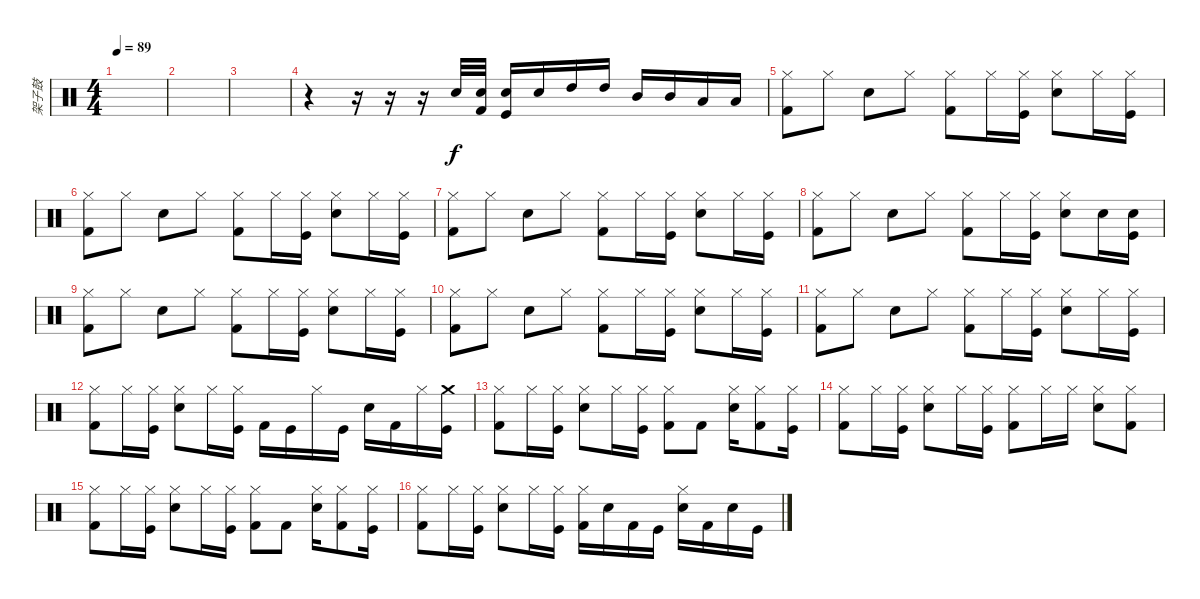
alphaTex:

\track ("架子鼓" "架子鼓") {instrument percussion}
\staff {score}
\articulation defaults
\ts (4 4)
\tempo 89
\clef neutral
\ks c
|
|
|
r.4 r.16 r.16 r.16 "Snare (hit) 2".32 ("Snare (hit) 2" "Kick (hit) 2").32 ("Snare (hit) 2" "Kick (hit)").16 "Snare (hit) 2".16 "High Tom (hit)".16 "High Tom (hit)".16 "Mid Tom (hit)".16 "Mid Tom (hit)".16 "Low Tom (hit)".16 "Low Tom (hit)".16 |
("Hi-Hat (closed)" "Kick (hit) 2").8 "Hi-Hat (closed)".8 "Snare (hit) 2".8 "Hi-Hat (closed)".8 ("Hi-Hat (closed)" "Kick (hit) 2").8 "Hi-Hat (closed)".16 ("Hi-Hat (closed)" "Kick (hit)").16 ("Snare (hit) 2" "Hi-Hat (closed)").8 "Hi-Hat (closed)".16 ("Hi-Hat (closed)" "Kick (hit)").16 |
("Hi-Hat (closed)" "Kick (hit) 2").8 "Hi-Hat (closed)".8 "Snare (hit) 2".8 "Hi-Hat (closed)".8 ("Hi-Hat (closed)" "Kick (hit) 2").8 "Hi-Hat (closed)".16 ("Hi-Hat (closed)" "Kick (hit)").16 ("Snare (hit) 2" "Hi-Hat (closed)").8 "Hi-Hat (closed)".16 ("Hi-Hat (closed)" "Kick (hit)").16 |
("Hi-Hat (closed)" "Kick (hit) 2").8 "Hi-Hat (closed)".8 "Snare (hit) 2".8 "Hi-Hat (closed)".8 ("Hi-Hat (closed)" "Kick (hit) 2").8 "Hi-Hat (closed)".16 ("Hi-Hat (closed)" "Kick (hit)").16 ("Snare (hit) 2" "Hi-Hat (closed)").8 "Hi-Hat (closed)".16 ("Hi-Hat (closed)" "Kick (hit)").16 |
("Hi-Hat (closed)" "Kick (hit) 2").8 "Hi-Hat (closed)".8 "Snare (hit) 2".8 "Hi-Hat (closed)".8 ("Hi-Hat (closed)" "Kick (hit) 2").8 "Hi-Hat (closed)".16 ("Hi-Hat (closed)" "Kick (hit)").16 ("Snare (hit) 2" "Hi-Hat (closed)").8 "Snare (hit) 2".16 ("Snare (hit) 2" "Kick (hit)").16 |
("Hi-Hat (closed)" "Kick (hit) 2").8 "Hi-Hat (closed)".8 "Snare (hit) 2".8 "Hi-Hat (closed)".8 ("Hi-Hat (closed)" "Kick (hit) 2").8 "Hi-Hat (closed)".16 ("Hi-Hat (closed)" "Kick (hit)").16 ("Snare (hit) 2" "Hi-Hat (closed)").8 "Hi-Hat (closed)".16 ("Hi-Hat (closed)" "Kick (hit)").16 |
("Hi-Hat (closed)" "Kick (hit) 2").8 "Hi-Hat (closed)".8 "Snare (hit) 2".8 "Hi-Hat (closed)".8 ("Hi-Hat (closed)" "Kick (hit) 2").8 "Hi-Hat (closed)".16 ("Hi-Hat (closed)" "Kick (hit)").16 ("Snare (hit) 2" "Hi-Hat (closed)").8 "Hi-Hat (closed)".16 ("Hi-Hat (closed)" "Kick (hit)").16 |
("Hi-Hat (closed)" "Kick (hit) 2").8 "Hi-Hat (closed)".8 "Snare (hit) 2".8 "Hi-Hat (closed)".8 ("Hi-Hat (closed)" "Kick (hit) 2").8 "Hi-Hat (closed)".16 ("Hi-Hat (closed)" "Kick (hit)").16 ("Snare (hit) 2" "Hi-Hat (closed)").8 "Hi-Hat (closed)".16 ("Hi-Hat (closed)" "Kick (hit)").16 |
("Hi-Hat (closed)" "Kick (hit) 2").8 "Hi-Hat (closed)".16 ("Hi-Hat (closed)" "Kick (hit)").16 ("Snare (hit) 2" "Hi-Hat (closed)").8 "Hi-Hat (closed)".16 ("Hi-Hat (closed)" "Kick (hit)").16 "Kick (hit) 2".16 "Kick (hit)".16 "Hi-Hat (closed)".16 "Kick (hit)".16 "Snare (hit) 2".16 "Kick (hit) 2".16 "Hi-Hat (closed)".16 ("Crash medium (hit)" "Kick (hit)").16 |
("Hi-Hat (closed)" "Kick (hit) 2").8 "Hi-Hat (closed)".16 ("Hi-Hat (closed)" "Kick (hit)").16 ("Snare (hit) 2" "Hi-Hat (closed)").8 "Hi-Hat (closed)".16 ("Hi-Hat (closed)" "Kick (hit)").16 ("Hi-Hat (closed)" "Kick (hit) 2").8 "Kick (hit) 2".8 ("Snare (hit) 2" "Hi-Hat (closed)").16 ("Hi-Hat (closed)" "Kick (hit) 2").8 ("Hi-Hat (closed)" "Kick (hit)").16 |
("Hi-Hat (closed)" "Kick (hit) 2").8 "Hi-Hat (closed)".16 ("Hi-Hat (closed)" "Kick (hit)").16 ("Snare (hit) 2" "Hi-Hat (closed)").8 "Hi-Hat (closed)".16 ("Hi-Hat (closed)" "Kick (hit)").16 ("Hi-Hat (closed)" "Kick (hit) 2").8 "Hi-Hat (closed)".16 "Hi-Hat (closed)".16 ("Snare (hit) 2" "Hi-Hat (closed)").8 ("Kick (hit) 2" "Hi-Hat (closed)").8 |
("Hi-Hat (closed)" "Kick (hit) 2").8 "Hi-Hat (closed)".16 ("Hi-Hat (closed)" "Kick (hit)").16 ("Snare (hit) 2" "Hi-Hat (closed)").8 "Hi-Hat (closed)".16 ("Hi-Hat (closed)" "Kick (hit)").16 ("Hi-Hat (closed)" "Kick (hit) 2").8 "Kick (hit) 2".8 ("Snare (hit) 2" "Hi-Hat (closed)").16 ("Hi-Hat (closed)" "Kick (hit) 2").8 ("Hi-Hat (closed)" "Kick (hit)").16 |
("Hi-Hat (closed)" "Kick (hit) 2").8 "Hi-Hat (closed)".16 ("Hi-Hat (closed)" "Kick (hit)").16 ("Snare (hit) 2" "Hi-Hat (closed)").8 "Hi-Hat (closed)".16 ("Hi-Hat (closed)" "Kick (hit)").16 ("Hi-Hat (closed)" "Kick (hit) 2").16 "Snare (hit) 2".16 "Kick (hit) 2".16 "Kick (hit)".16 ("Snare (hit) 2" "Hi-Hat (closed)").16 "Kick (hit) 2".16 "Snare (hit) 2".16 "Kick (hit)".16
